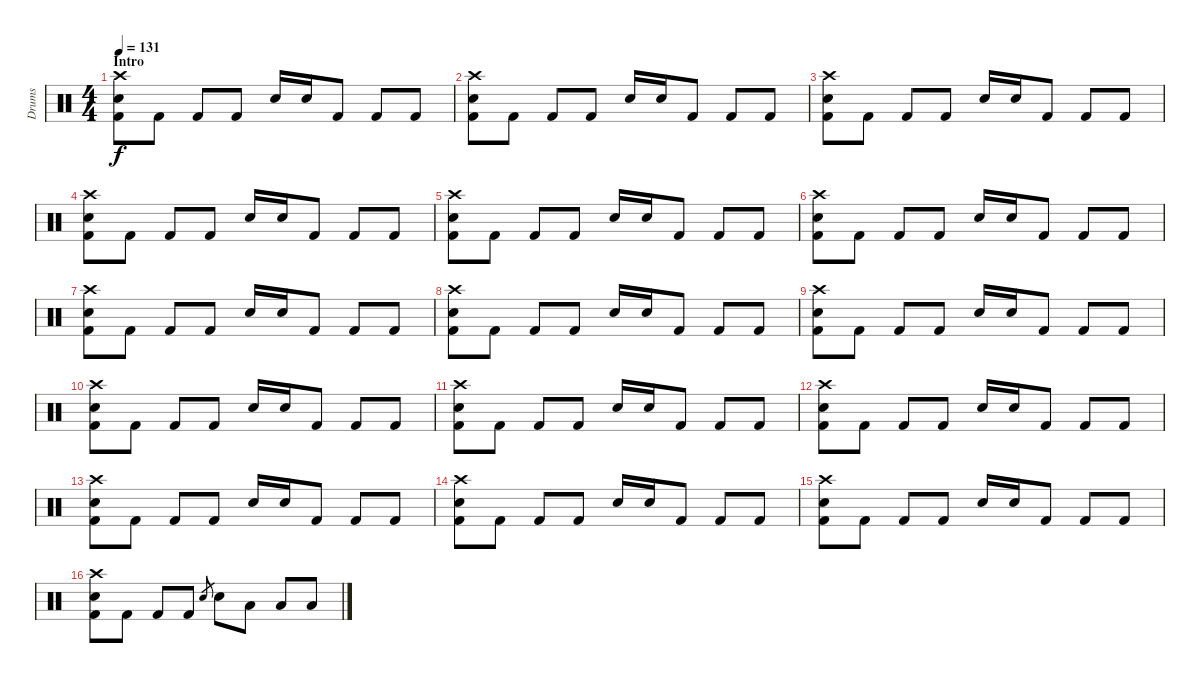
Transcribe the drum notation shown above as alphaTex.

\track ("Drums" "Drums") {instrument percussion}
\staff {score}
\articulation defaults
\ts (4 4)
\section ("" "Intro")
\tempo 131
\clef neutral
\ks c
("Electric Snare (hit)" "Kick (hit) 2" "Crash high (hit)").8{dy f} "Kick (hit) 2".8 "Kick (hit) 2".8 "Kick (hit) 2".8 "Electric Snare (hit)".16 "Electric Snare (hit)".16 "Kick (hit) 2".8 "Kick (hit) 2".8 "Kick (hit) 2".8 |
("Electric Snare (hit)" "Kick (hit) 2" "Crash high (hit)").8 "Kick (hit) 2".8 "Kick (hit) 2".8 "Kick (hit) 2".8 "Electric Snare (hit)".16 "Electric Snare (hit)".16 "Kick (hit) 2".8 "Kick (hit) 2".8 "Kick (hit) 2".8 |
("Electric Snare (hit)" "Kick (hit) 2" "Crash high (hit)").8 "Kick (hit) 2".8 "Kick (hit) 2".8 "Kick (hit) 2".8 "Electric Snare (hit)".16 "Electric Snare (hit)".16 "Kick (hit) 2".8 "Kick (hit) 2".8 "Kick (hit) 2".8 |
("Electric Snare (hit)" "Kick (hit) 2" "Crash high (hit)").8 "Kick (hit) 2".8 "Kick (hit) 2".8 "Kick (hit) 2".8 "Electric Snare (hit)".16 "Electric Snare (hit)".16 "Kick (hit) 2".8 "Kick (hit) 2".8 "Kick (hit) 2".8 |
("Electric Snare (hit)" "Kick (hit) 2" "Crash high (hit)").8 "Kick (hit) 2".8 "Kick (hit) 2".8 "Kick (hit) 2".8 "Electric Snare (hit)".16 "Electric Snare (hit)".16 "Kick (hit) 2".8 "Kick (hit) 2".8 "Kick (hit) 2".8 |
("Electric Snare (hit)" "Kick (hit) 2" "Crash high (hit)").8 "Kick (hit) 2".8 "Kick (hit) 2".8 "Kick (hit) 2".8 "Electric Snare (hit)".16 "Electric Snare (hit)".16 "Kick (hit) 2".8 "Kick (hit) 2".8 "Kick (hit) 2".8 |
("Electric Snare (hit)" "Kick (hit) 2" "Crash high (hit)").8 "Kick (hit) 2".8 "Kick (hit) 2".8 "Kick (hit) 2".8 "Electric Snare (hit)".16 "Electric Snare (hit)".16 "Kick (hit) 2".8 "Kick (hit) 2".8 "Kick (hit) 2".8 |
("Electric Snare (hit)" "Kick (hit) 2" "Crash high (hit)").8 "Kick (hit) 2".8 "Kick (hit) 2".8 "Kick (hit) 2".8 "Electric Snare (hit)".16 "Electric Snare (hit)".16 "Kick (hit) 2".8 "Kick (hit) 2".8 "Kick (hit) 2".8 |
("Electric Snare (hit)" "Kick (hit) 2" "Crash high (hit)").8 "Kick (hit) 2".8 "Kick (hit) 2".8 "Kick (hit) 2".8 "Electric Snare (hit)".16 "Electric Snare (hit)".16 "Kick (hit) 2".8 "Kick (hit) 2".8 "Kick (hit) 2".8 |
("Electric Snare (hit)" "Kick (hit) 2" "Crash high (hit)").8 "Kick (hit) 2".8 "Kick (hit) 2".8 "Kick (hit) 2".8 "Electric Snare (hit)".16 "Electric Snare (hit)".16 "Kick (hit) 2".8 "Kick (hit) 2".8 "Kick (hit) 2".8 |
("Electric Snare (hit)" "Kick (hit) 2" "Crash high (hit)").8 "Kick (hit) 2".8 "Kick (hit) 2".8 "Kick (hit) 2".8 "Electric Snare (hit)".16 "Electric Snare (hit)".16 "Kick (hit) 2".8 "Kick (hit) 2".8 "Kick (hit) 2".8 |
("Electric Snare (hit)" "Kick (hit) 2" "Crash high (hit)").8 "Kick (hit) 2".8 "Kick (hit) 2".8 "Kick (hit) 2".8 "Electric Snare (hit)".16 "Electric Snare (hit)".16 "Kick (hit) 2".8 "Kick (hit) 2".8 "Kick (hit) 2".8 |
("Electric Snare (hit)" "Kick (hit) 2" "Crash high (hit)").8 "Kick (hit) 2".8 "Kick (hit) 2".8 "Kick (hit) 2".8 "Electric Snare (hit)".16 "Electric Snare (hit)".16 "Kick (hit) 2".8 "Kick (hit) 2".8 "Kick (hit) 2".8 |
("Electric Snare (hit)" "Kick (hit) 2" "Crash high (hit)").8 "Kick (hit) 2".8 "Kick (hit) 2".8 "Kick (hit) 2".8 "Electric Snare (hit)".16 "Electric Snare (hit)".16 "Kick (hit) 2".8 "Kick (hit) 2".8 "Kick (hit) 2".8 |
("Electric Snare (hit)" "Kick (hit) 2" "Crash high (hit)").8 "Kick (hit) 2".8 "Kick (hit) 2".8 "Kick (hit) 2".8 "Electric Snare (hit)".16 "Electric Snare (hit)".16 "Kick (hit) 2".8 "Kick (hit) 2".8 "Kick (hit) 2".8 |
("Electric Snare (hit)" "Kick (hit) 2" "Crash high (hit)").8 "Kick (hit) 2".8 "Kick (hit) 2".8 "Kick (hit) 2".8 "Electric Snare (hit)".8{gr} "Electric Snare (hit)".8 "Low Tom (hit)".8 "Low Tom (hit)".8 "Low Tom (hit)".8
